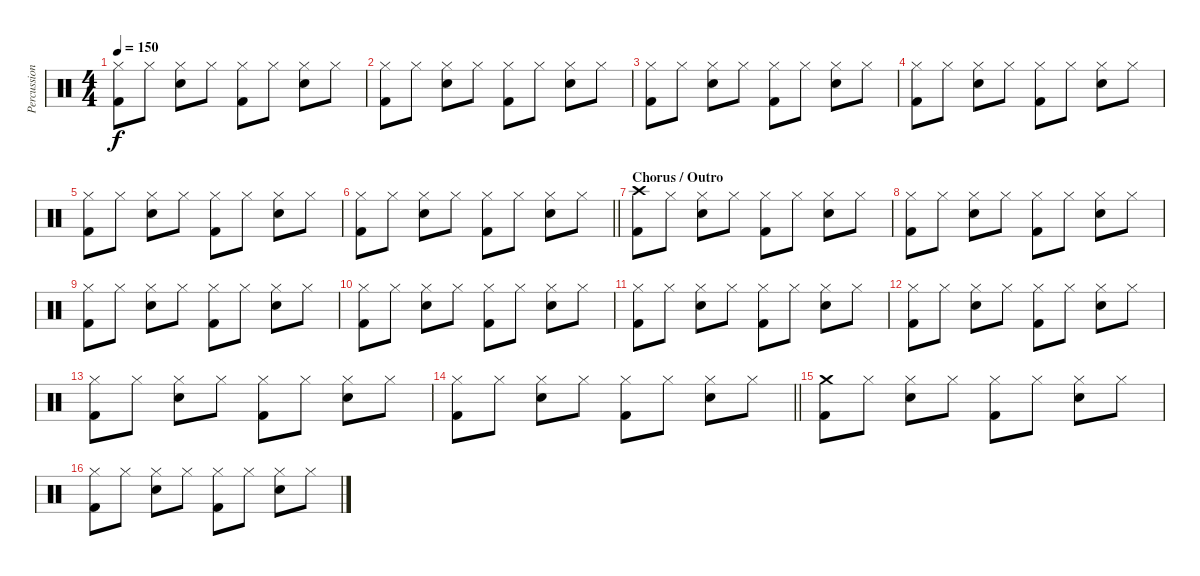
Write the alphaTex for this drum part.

\track ("Percussion" "Percussion") {instrument percussion}
\staff {score}
\articulation defaults
\ts (4 4)
\tempo 150
\clef neutral
\ks c
("Hi-Hat (closed)" "Kick (hit) 2").8{dy f} "Hi-Hat (closed)".8 ("Hi-Hat (closed)" "Snare (hit) 2").8 "Hi-Hat (closed)".8 ("Hi-Hat (closed)" "Kick (hit) 2").8 "Hi-Hat (closed)".8 ("Hi-Hat (closed)" "Snare (hit) 2").8 "Hi-Hat (closed)".8 |
("Hi-Hat (closed)" "Kick (hit) 2").8 "Hi-Hat (closed)".8 ("Hi-Hat (closed)" "Snare (hit) 2").8 "Hi-Hat (closed)".8 ("Hi-Hat (closed)" "Kick (hit) 2").8 "Hi-Hat (closed)".8 ("Hi-Hat (closed)" "Snare (hit) 2").8 "Hi-Hat (closed)".8 |
("Hi-Hat (closed)" "Kick (hit) 2").8 "Hi-Hat (closed)".8 ("Hi-Hat (closed)" "Snare (hit) 2").8 "Hi-Hat (closed)".8 ("Hi-Hat (closed)" "Kick (hit) 2").8 "Hi-Hat (closed)".8 ("Hi-Hat (closed)" "Snare (hit) 2").8 "Hi-Hat (closed)".8 |
("Hi-Hat (closed)" "Kick (hit) 2").8 "Hi-Hat (closed)".8 ("Hi-Hat (closed)" "Snare (hit) 2").8 "Hi-Hat (closed)".8 ("Hi-Hat (closed)" "Kick (hit) 2").8 "Hi-Hat (closed)".8 ("Hi-Hat (closed)" "Snare (hit) 2").8 "Hi-Hat (closed)".8 |
("Hi-Hat (closed)" "Kick (hit) 2").8 "Hi-Hat (closed)".8 ("Hi-Hat (closed)" "Snare (hit) 2").8 "Hi-Hat (closed)".8 ("Hi-Hat (closed)" "Kick (hit) 2").8 "Hi-Hat (closed)".8 ("Hi-Hat (closed)" "Snare (hit) 2").8 "Hi-Hat (closed)".8 |
\barLineRight lightlight
("Hi-Hat (closed)" "Kick (hit) 2").8 "Hi-Hat (closed)".8 ("Hi-Hat (closed)" "Snare (hit) 2").8 "Hi-Hat (closed)".8 ("Hi-Hat (closed)" "Kick (hit) 2").8 "Hi-Hat (closed)".8 ("Hi-Hat (closed)" "Snare (hit) 2").8 "Hi-Hat (closed)".8 |
\section ("" "Chorus / Outro")
("Crash high (hit)" "Kick (hit) 2").8 "Hi-Hat (closed)".8 ("Hi-Hat (closed)" "Snare (hit) 2").8 "Hi-Hat (closed)".8 ("Hi-Hat (closed)" "Kick (hit) 2").8 "Hi-Hat (closed)".8 ("Hi-Hat (closed)" "Snare (hit) 2").8 "Hi-Hat (closed)".8 |
("Hi-Hat (closed)" "Kick (hit) 2").8 "Hi-Hat (closed)".8 ("Hi-Hat (closed)" "Snare (hit) 2").8 "Hi-Hat (closed)".8 ("Hi-Hat (closed)" "Kick (hit) 2").8 "Hi-Hat (closed)".8 ("Hi-Hat (closed)" "Snare (hit) 2").8 "Hi-Hat (closed)".8 |
("Hi-Hat (closed)" "Kick (hit) 2").8 "Hi-Hat (closed)".8 ("Hi-Hat (closed)" "Snare (hit) 2").8 "Hi-Hat (closed)".8 ("Hi-Hat (closed)" "Kick (hit) 2").8 "Hi-Hat (closed)".8 ("Hi-Hat (closed)" "Snare (hit) 2").8 "Hi-Hat (closed)".8 |
("Hi-Hat (closed)" "Kick (hit) 2").8 "Hi-Hat (closed)".8 ("Hi-Hat (closed)" "Snare (hit) 2").8 "Hi-Hat (closed)".8 ("Hi-Hat (closed)" "Kick (hit) 2").8 "Hi-Hat (closed)".8 ("Hi-Hat (closed)" "Snare (hit) 2").8 "Hi-Hat (closed)".8 |
("Hi-Hat (closed)" "Kick (hit) 2").8 "Hi-Hat (closed)".8 ("Hi-Hat (closed)" "Snare (hit) 2").8 "Hi-Hat (closed)".8 ("Hi-Hat (closed)" "Kick (hit) 2").8 "Hi-Hat (closed)".8 ("Hi-Hat (closed)" "Snare (hit) 2").8 "Hi-Hat (closed)".8 |
("Hi-Hat (closed)" "Kick (hit) 2").8 "Hi-Hat (closed)".8 ("Hi-Hat (closed)" "Snare (hit) 2").8 "Hi-Hat (closed)".8 ("Hi-Hat (closed)" "Kick (hit) 2").8 "Hi-Hat (closed)".8 ("Hi-Hat (closed)" "Snare (hit) 2").8 "Hi-Hat (closed)".8 |
("Hi-Hat (closed)" "Kick (hit) 2").8 "Hi-Hat (closed)".8 ("Hi-Hat (closed)" "Snare (hit) 2").8 "Hi-Hat (closed)".8 ("Hi-Hat (closed)" "Kick (hit) 2").8 "Hi-Hat (closed)".8 ("Hi-Hat (closed)" "Snare (hit) 2").8 "Hi-Hat (closed)".8 |
\barLineRight lightlight
("Hi-Hat (closed)" "Kick (hit) 2").8 "Hi-Hat (closed)".8 ("Hi-Hat (closed)" "Snare (hit) 2").8 "Hi-Hat (closed)".8 ("Hi-Hat (closed)" "Kick (hit) 2").8 "Hi-Hat (closed)".8 ("Hi-Hat (closed)" "Snare (hit) 2").8 "Hi-Hat (closed)".8 |
("Crash medium (hit)" "Kick (hit) 2").8 "Hi-Hat (closed)".8 ("Hi-Hat (closed)" "Snare (hit) 2").8 "Hi-Hat (closed)".8 ("Hi-Hat (closed)" "Kick (hit) 2").8 "Hi-Hat (closed)".8 ("Hi-Hat (closed)" "Snare (hit) 2").8 "Hi-Hat (closed)".8 |
("Hi-Hat (closed)" "Kick (hit) 2").8 "Hi-Hat (closed)".8 ("Hi-Hat (closed)" "Snare (hit) 2").8 "Hi-Hat (closed)".8 ("Hi-Hat (closed)" "Kick (hit) 2").8 "Hi-Hat (closed)".8 ("Hi-Hat (closed)" "Snare (hit) 2").8 "Hi-Hat (closed)".8
